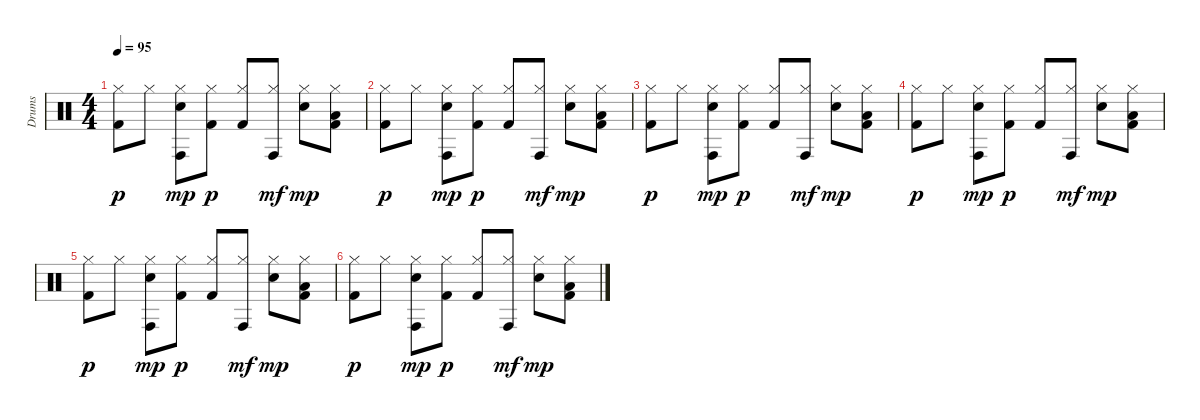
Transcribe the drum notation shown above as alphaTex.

\track ("Drums" "Drums") {instrument percussion}
\staff {score}
\articulation defaults
\ts (4 4)
\tempo 95
\clef neutral
\ks c
("Hi-Hat (closed)" "Kick (hit) 2").8{dy p} "Hi-Hat (closed)".8 ("Hi-Hat (closed)" "Conga high (hit)" "Electric Snare (hit)").8{dy mp} ("Hi-Hat (closed)" "Kick (hit) 2").8{dy p} ("Hi-Hat (closed)" "Kick (hit) 2").8 ("Hi-Hat (closed)" "Conga high (hit)").8{dy mf} ("Hi-Hat (closed)" "Electric Snare (hit)").8{dy mp} ("Hi-Hat (closed)" "Low Tom (hit)" "Kick (hit) 2").8 |
("Hi-Hat (closed)" "Kick (hit) 2").8{dy p} "Hi-Hat (closed)".8 ("Hi-Hat (closed)" "Conga high (hit)" "Electric Snare (hit)").8{dy mp} ("Hi-Hat (closed)" "Kick (hit) 2").8{dy p} ("Hi-Hat (closed)" "Kick (hit) 2").8 ("Hi-Hat (closed)" "Conga high (hit)").8{dy mf} ("Hi-Hat (closed)" "Electric Snare (hit)").8{dy mp} ("Hi-Hat (closed)" "Low Tom (hit)" "Kick (hit) 2").8 |
("Hi-Hat (closed)" "Kick (hit) 2").8{dy p} "Hi-Hat (closed)".8 ("Hi-Hat (closed)" "Conga high (hit)" "Electric Snare (hit)").8{dy mp} ("Hi-Hat (closed)" "Kick (hit) 2").8{dy p} ("Hi-Hat (closed)" "Kick (hit) 2").8 ("Hi-Hat (closed)" "Conga high (hit)").8{dy mf} ("Hi-Hat (closed)" "Electric Snare (hit)").8{dy mp} ("Hi-Hat (closed)" "Low Tom (hit)" "Kick (hit) 2").8 |
("Hi-Hat (closed)" "Kick (hit) 2").8{dy p} "Hi-Hat (closed)".8 ("Hi-Hat (closed)" "Conga high (hit)" "Electric Snare (hit)").8{dy mp} ("Hi-Hat (closed)" "Kick (hit) 2").8{dy p} ("Hi-Hat (closed)" "Kick (hit) 2").8 ("Hi-Hat (closed)" "Conga high (hit)").8{dy mf} ("Hi-Hat (closed)" "Electric Snare (hit)").8{dy mp} ("Hi-Hat (closed)" "Low Tom (hit)" "Kick (hit) 2").8 |
("Hi-Hat (closed)" "Kick (hit) 2").8{dy p} "Hi-Hat (closed)".8 ("Hi-Hat (closed)" "Conga high (hit)" "Electric Snare (hit)").8{dy mp} ("Hi-Hat (closed)" "Kick (hit) 2").8{dy p} ("Hi-Hat (closed)" "Kick (hit) 2").8 ("Hi-Hat (closed)" "Conga high (hit)").8{dy mf} ("Hi-Hat (closed)" "Electric Snare (hit)").8{dy mp} ("Hi-Hat (closed)" "Low Tom (hit)" "Kick (hit) 2").8 |
("Hi-Hat (closed)" "Kick (hit) 2").8{dy p} "Hi-Hat (closed)".8 ("Hi-Hat (closed)" "Conga high (hit)" "Electric Snare (hit)").8{dy mp} ("Hi-Hat (closed)" "Kick (hit) 2").8{dy p} ("Hi-Hat (closed)" "Kick (hit) 2").8 ("Hi-Hat (closed)" "Conga high (hit)").8{dy mf} ("Hi-Hat (closed)" "Electric Snare (hit)").8{dy mp} ("Hi-Hat (closed)" "Low Tom (hit)" "Kick (hit) 2").8
